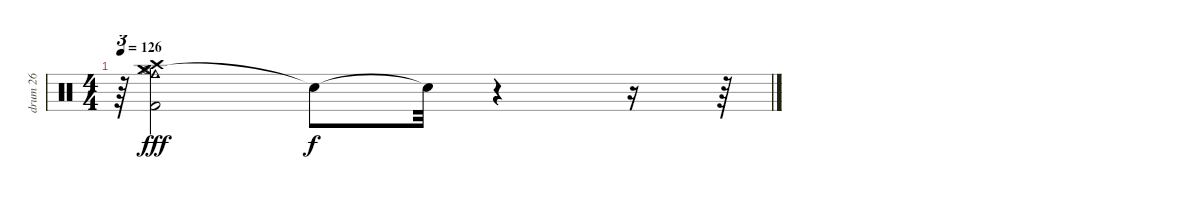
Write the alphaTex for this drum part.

\track ("drum 26" "drum 26") {instrument percussion}
\staff {score}
\articulation defaults
\ts (4 4)
\tempo 126
\clef neutral
\ks c
r.64{tu (3 2) dy fff} ("Hi-Hat (closed)" "Kick (hit) 2" "Hi-Hat (open)" "Crash high (hit)" "Cowbell medium (hit)" "Crash medium (hit)").2 "Snare (hit)"{t}.8{dy f} "Snare (hit)"{t}.32 r.4 r.16 r.64
